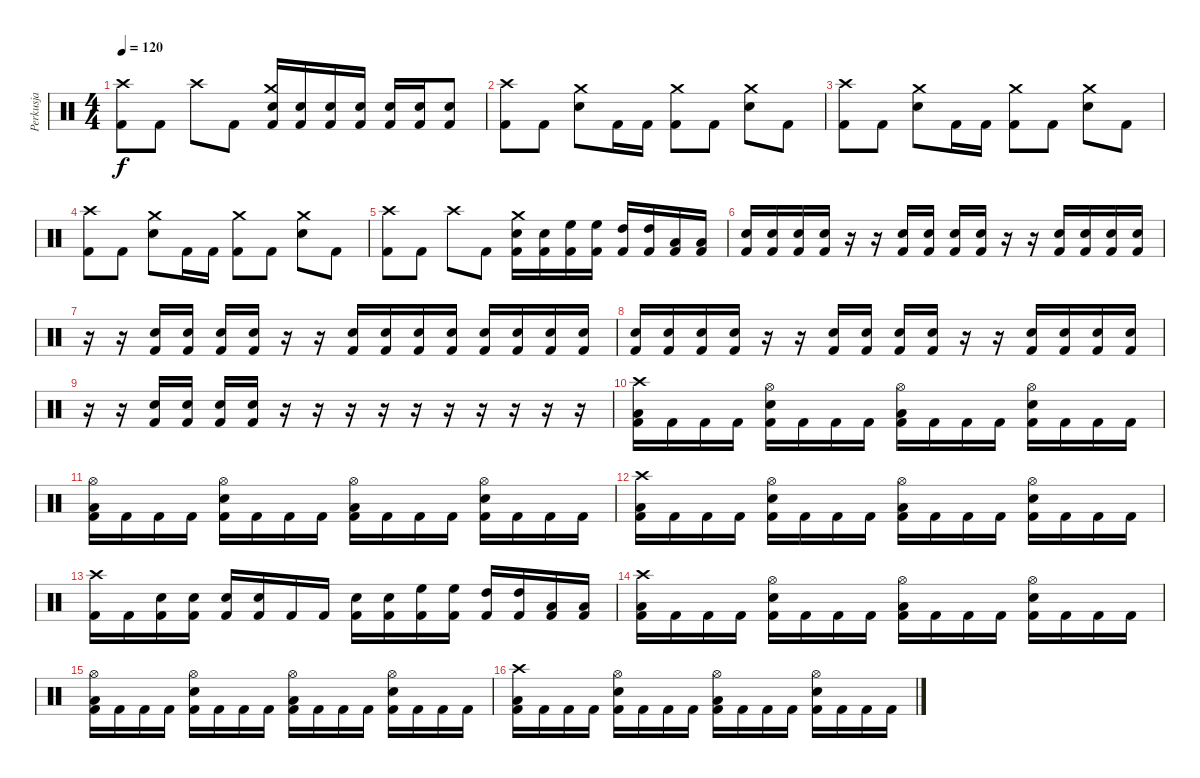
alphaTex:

\track ("Perkusja" "Perkusja") {instrument percussion}
\staff {score}
\articulation defaults
\ts (4 4)
\tempo 120
\clef neutral
\ks c
("Crash high (hit)" "Kick (hit) 2").8{dy f} "Kick (hit) 2".8 "Crash high (hit)".8 "Kick (hit) 2".8 ("Crash medium (hit)" "Electric Snare (hit)" "Kick (hit) 2").16 ("Electric Snare (hit)" "Kick (hit) 2").16 ("Electric Snare (hit)" "Kick (hit) 2").16 ("Electric Snare (hit)" "Kick (hit) 2").16 ("Electric Snare (hit)" "Kick (hit) 2").16 ("Electric Snare (hit)" "Kick (hit) 2").16 ("Electric Snare (hit)" "Kick (hit) 2").8 |
("Crash high (hit)" "Kick (hit) 2").8 "Kick (hit) 2".8 ("Crash medium (hit)" "Electric Snare (hit)").8 "Kick (hit) 2".16 "Kick (hit) 2".16 ("Crash medium (hit)" "Kick (hit) 2").8 "Kick (hit) 2".8 ("Crash medium (hit)" "Electric Snare (hit)").8 "Kick (hit) 2".8 |
("Crash high (hit)" "Kick (hit) 2").8 "Kick (hit) 2".8 ("Crash medium (hit)" "Electric Snare (hit)").8 "Kick (hit) 2".16 "Kick (hit) 2".16 ("Crash medium (hit)" "Kick (hit) 2").8 "Kick (hit) 2".8 ("Crash medium (hit)" "Electric Snare (hit)").8 "Kick (hit) 2".8 |
("Crash high (hit)" "Kick (hit) 2").8 "Kick (hit) 2".8 ("Crash medium (hit)" "Electric Snare (hit)").8 "Kick (hit) 2".16 "Kick (hit) 2".16 ("Crash medium (hit)" "Kick (hit) 2").8 "Kick (hit) 2".8 ("Crash medium (hit)" "Electric Snare (hit)").8 "Kick (hit) 2".8 |
("Crash high (hit)" "Kick (hit) 2").8 "Kick (hit) 2".8 "Crash high (hit)".8 "Kick (hit) 2".8 ("Crash medium (hit)" "Electric Snare (hit)" "Kick (hit) 2").16 ("Electric Snare (hit)" "Kick (hit) 2").16 ("High Floor Tom (hit)" "Kick (hit) 2").16 ("High Floor Tom (hit)" "Kick (hit) 2").16 ("High Tom (hit)" "Kick (hit) 2").16 ("High Tom (hit)" "Kick (hit) 2").16 ("Low Floor Tom (hit)" "Kick (hit) 2").16 ("Low Floor Tom (hit)" "Kick (hit) 2").16 |
("Electric Snare (hit)" "Kick (hit) 2").16 ("Electric Snare (hit)" "Kick (hit) 2").16 ("Electric Snare (hit)" "Kick (hit) 2").16 ("Electric Snare (hit)" "Kick (hit) 2").16 r.16 r.16 ("Electric Snare (hit)" "Kick (hit) 2").16 ("Electric Snare (hit)" "Kick (hit) 2").16 ("Electric Snare (hit)" "Kick (hit) 2").16 ("Electric Snare (hit)" "Kick (hit) 2").16 r.16 r.16 ("Electric Snare (hit)" "Kick (hit) 2").16 ("Electric Snare (hit)" "Kick (hit) 2").16 ("Electric Snare (hit)" "Kick (hit) 2").16 ("Electric Snare (hit)" "Kick (hit) 2").16 |
r.16 r.16 ("Electric Snare (hit)" "Kick (hit) 2").16 ("Electric Snare (hit)" "Kick (hit) 2").16 ("Electric Snare (hit)" "Kick (hit) 2").16 ("Electric Snare (hit)" "Kick (hit) 2").16 r.16 r.16 ("Electric Snare (hit)" "Kick (hit) 2").16 ("Electric Snare (hit)" "Kick (hit) 2").16 ("Electric Snare (hit)" "Kick (hit) 2").16 ("Electric Snare (hit)" "Kick (hit) 2").16 ("Electric Snare (hit)" "Kick (hit) 2").16 ("Electric Snare (hit)" "Kick (hit) 2").16 ("Electric Snare (hit)" "Kick (hit) 2").16 ("Electric Snare (hit)" "Kick (hit) 2").16 |
("Electric Snare (hit)" "Kick (hit) 2").16 ("Electric Snare (hit)" "Kick (hit) 2").16 ("Electric Snare (hit)" "Kick (hit) 2").16 ("Electric Snare (hit)" "Kick (hit) 2").16 r.16 r.16 ("Electric Snare (hit)" "Kick (hit) 2").16 ("Electric Snare (hit)" "Kick (hit) 2").16 ("Electric Snare (hit)" "Kick (hit) 2").16 ("Electric Snare (hit)" "Kick (hit) 2").16 r.16 r.16 ("Electric Snare (hit)" "Kick (hit) 2").16 ("Electric Snare (hit)" "Kick (hit) 2").16 ("Electric Snare (hit)" "Kick (hit) 2").16 ("Electric Snare (hit)" "Kick (hit) 2").16 |
r.16 r.16 ("Electric Snare (hit)" "Kick (hit) 2").16 ("Electric Snare (hit)" "Kick (hit) 2").16 ("Electric Snare (hit)" "Kick (hit) 2").16 ("Electric Snare (hit)" "Kick (hit) 2").16 r.16 r.16 r.16 r.16 r.16 r.16 r.16 r.16 r.16 r.16 |
("Crash high (hit)" "Low Floor Tom (hit)" "Kick (hit) 2").16 "Kick (hit) 2".16 "Kick (hit) 2".16 "Kick (hit) 2".16 ("Hi-Hat (open)" "Electric Snare (hit)" "Kick (hit) 2").16 "Kick (hit) 2".16 "Kick (hit) 2".16 "Kick (hit) 2".16 ("Hi-Hat (open)" "Low Floor Tom (hit)" "Kick (hit) 2").16 "Kick (hit) 2".16 "Kick (hit) 2".16 "Kick (hit) 2".16 ("Hi-Hat (open)" "Electric Snare (hit)" "Kick (hit) 2").16 "Kick (hit) 2".16 "Kick (hit) 2".16 "Kick (hit) 2".16 |
("Hi-Hat (open)" "Low Floor Tom (hit)" "Kick (hit) 2").16 "Kick (hit) 2".16 "Kick (hit) 2".16 "Kick (hit) 2".16 ("Hi-Hat (open)" "Electric Snare (hit)" "Kick (hit) 2").16 "Kick (hit) 2".16 "Kick (hit) 2".16 "Kick (hit) 2".16 ("Hi-Hat (open)" "Low Floor Tom (hit)" "Kick (hit) 2").16 "Kick (hit) 2".16 "Kick (hit) 2".16 "Kick (hit) 2".16 ("Hi-Hat (open)" "Electric Snare (hit)" "Kick (hit) 2").16 "Kick (hit) 2".16 "Kick (hit) 2".16 "Kick (hit) 2".16 |
("Crash high (hit)" "Low Floor Tom (hit)" "Kick (hit) 2").16 "Kick (hit) 2".16 "Kick (hit) 2".16 "Kick (hit) 2".16 ("Hi-Hat (open)" "Electric Snare (hit)" "Kick (hit) 2").16 "Kick (hit) 2".16 "Kick (hit) 2".16 "Kick (hit) 2".16 ("Hi-Hat (open)" "Low Floor Tom (hit)" "Kick (hit) 2").16 "Kick (hit) 2".16 "Kick (hit) 2".16 "Kick (hit) 2".16 ("Hi-Hat (open)" "Electric Snare (hit)" "Kick (hit) 2").16 "Kick (hit) 2".16 "Kick (hit) 2".16 "Kick (hit) 2".16 |
("Crash high (hit)" "Kick (hit) 2").16 "Kick (hit) 2".16 ("Electric Snare (hit)" "Kick (hit) 2").16 ("Electric Snare (hit)" "Kick (hit) 2").16 ("Electric Snare (hit)" "Kick (hit) 2").16 ("Electric Snare (hit)" "Kick (hit) 2").16 "Kick (hit) 2".16 "Kick (hit) 2".16 ("Electric Snare (hit)" "Kick (hit) 2").16 ("Electric Snare (hit)" "Kick (hit) 2").16 ("High Floor Tom (hit)" "Kick (hit) 2").16 ("High Floor Tom (hit)" "Kick (hit) 2").16 ("High Tom (hit)" "Kick (hit) 2").16 ("High Tom (hit)" "Kick (hit) 2").16 ("Low Floor Tom (hit)" "Kick (hit) 2").16 ("Low Floor Tom (hit)" "Kick (hit) 2").16 |
("Crash high (hit)" "Low Floor Tom (hit)" "Kick (hit) 2").16 "Kick (hit) 2".16 "Kick (hit) 2".16 "Kick (hit) 2".16 ("Hi-Hat (open)" "Electric Snare (hit)" "Kick (hit) 2").16 "Kick (hit) 2".16 "Kick (hit) 2".16 "Kick (hit) 2".16 ("Hi-Hat (open)" "Low Floor Tom (hit)" "Kick (hit) 2").16 "Kick (hit) 2".16 "Kick (hit) 2".16 "Kick (hit) 2".16 ("Hi-Hat (open)" "Electric Snare (hit)" "Kick (hit) 2").16 "Kick (hit) 2".16 "Kick (hit) 2".16 "Kick (hit) 2".16 |
("Hi-Hat (open)" "Low Floor Tom (hit)" "Kick (hit) 2").16 "Kick (hit) 2".16 "Kick (hit) 2".16 "Kick (hit) 2".16 ("Hi-Hat (open)" "Electric Snare (hit)" "Kick (hit) 2").16 "Kick (hit) 2".16 "Kick (hit) 2".16 "Kick (hit) 2".16 ("Hi-Hat (open)" "Low Floor Tom (hit)" "Kick (hit) 2").16 "Kick (hit) 2".16 "Kick (hit) 2".16 "Kick (hit) 2".16 ("Hi-Hat (open)" "Electric Snare (hit)" "Kick (hit) 2").16 "Kick (hit) 2".16 "Kick (hit) 2".16 "Kick (hit) 2".16 |
("Crash high (hit)" "Low Floor Tom (hit)" "Kick (hit) 2").16 "Kick (hit) 2".16 "Kick (hit) 2".16 "Kick (hit) 2".16 ("Hi-Hat (open)" "Electric Snare (hit)" "Kick (hit) 2").16 "Kick (hit) 2".16 "Kick (hit) 2".16 "Kick (hit) 2".16 ("Hi-Hat (open)" "Low Floor Tom (hit)" "Kick (hit) 2").16 "Kick (hit) 2".16 "Kick (hit) 2".16 "Kick (hit) 2".16 ("Hi-Hat (open)" "Electric Snare (hit)" "Kick (hit) 2").16 "Kick (hit) 2".16 "Kick (hit) 2".16 "Kick (hit) 2".16
